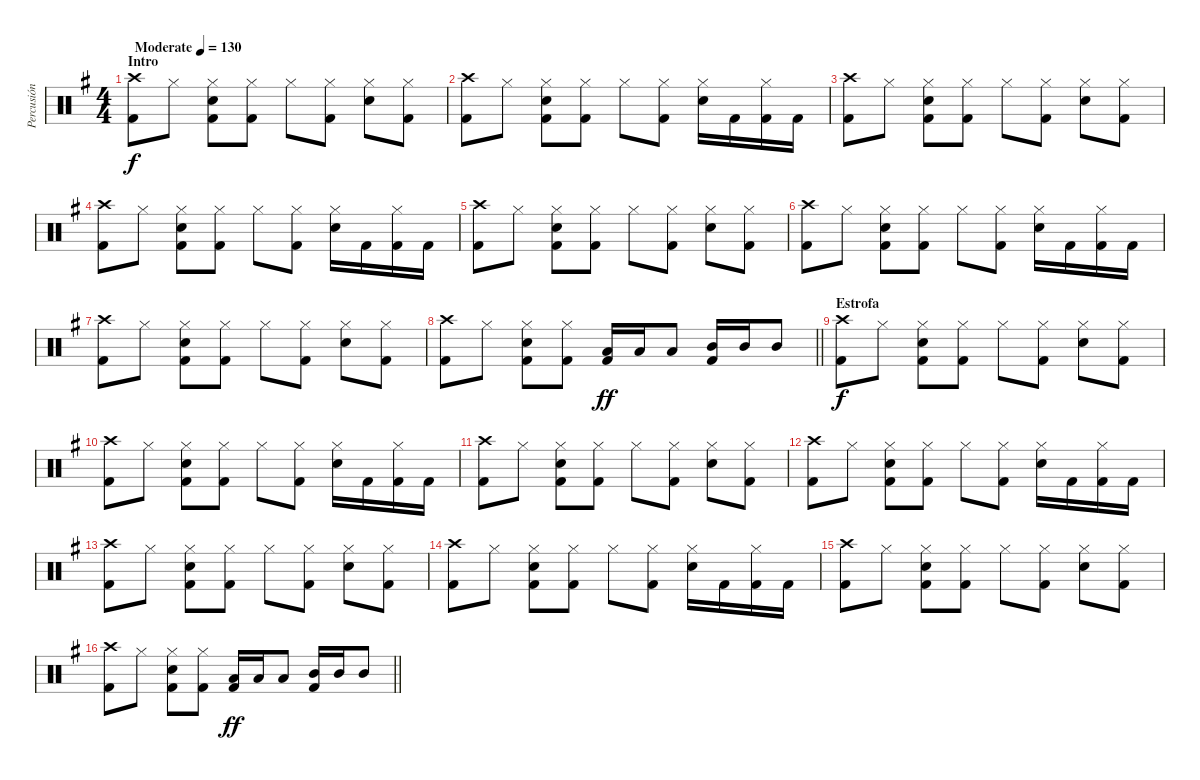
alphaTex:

\track ("Percusión" "Percusión") {instrument percussion}
\staff {score}
\articulation defaults
\ts (4 4)
\section ("" "Intro")
\tempo (130 "Moderate")
\clef neutral
\ks g
("Crash high (hit)" "Kick (hit) 2").8{dy f} "Hi-Hat (closed)".8 ("Hi-Hat (closed)" "Snare (hit) 2" "Kick (hit) 2").8 ("Hi-Hat (closed)" "Kick (hit) 2").8 "Hi-Hat (closed)".8 ("Hi-Hat (closed)" "Kick (hit) 2").8 ("Hi-Hat (closed)" "Snare (hit) 2").8 ("Hi-Hat (closed)" "Kick (hit) 2").8 |
("Crash high (hit)" "Kick (hit) 2").8 "Hi-Hat (closed)".8 ("Hi-Hat (closed)" "Snare (hit) 2" "Kick (hit) 2").8 ("Hi-Hat (closed)" "Kick (hit) 2").8 "Hi-Hat (closed)".8 ("Hi-Hat (closed)" "Kick (hit) 2").8 ("Hi-Hat (closed)" "Snare (hit) 2").16 "Kick (hit) 2".16 ("Hi-Hat (closed)" "Kick (hit) 2").16 "Kick (hit) 2".16 |
("Crash high (hit)" "Kick (hit) 2").8 "Hi-Hat (closed)".8 ("Hi-Hat (closed)" "Snare (hit) 2" "Kick (hit) 2").8 ("Hi-Hat (closed)" "Kick (hit) 2").8 "Hi-Hat (closed)".8 ("Hi-Hat (closed)" "Kick (hit) 2").8 ("Hi-Hat (closed)" "Snare (hit) 2").8 ("Hi-Hat (closed)" "Kick (hit) 2").8 |
("Crash high (hit)" "Kick (hit) 2").8 "Hi-Hat (closed)".8 ("Hi-Hat (closed)" "Snare (hit) 2" "Kick (hit) 2").8 ("Hi-Hat (closed)" "Kick (hit) 2").8 "Hi-Hat (closed)".8 ("Hi-Hat (closed)" "Kick (hit) 2").8 ("Hi-Hat (closed)" "Snare (hit) 2").16 "Kick (hit) 2".16 ("Hi-Hat (closed)" "Kick (hit) 2").16 "Kick (hit) 2".16 |
("Crash high (hit)" "Kick (hit) 2").8 "Hi-Hat (closed)".8 ("Hi-Hat (closed)" "Snare (hit) 2" "Kick (hit) 2").8 ("Hi-Hat (closed)" "Kick (hit) 2").8 "Hi-Hat (closed)".8 ("Hi-Hat (closed)" "Kick (hit) 2").8 ("Hi-Hat (closed)" "Snare (hit) 2").8 ("Hi-Hat (closed)" "Kick (hit) 2").8 |
("Crash high (hit)" "Kick (hit) 2").8 "Hi-Hat (closed)".8 ("Hi-Hat (closed)" "Snare (hit) 2" "Kick (hit) 2").8 ("Hi-Hat (closed)" "Kick (hit) 2").8 "Hi-Hat (closed)".8 ("Hi-Hat (closed)" "Kick (hit) 2").8 ("Hi-Hat (closed)" "Snare (hit) 2").16 "Kick (hit) 2".16 ("Hi-Hat (closed)" "Kick (hit) 2").16 "Kick (hit) 2".16 |
("Crash high (hit)" "Kick (hit) 2").8 "Hi-Hat (closed)".8 ("Hi-Hat (closed)" "Snare (hit) 2" "Kick (hit) 2").8 ("Hi-Hat (closed)" "Kick (hit) 2").8 "Hi-Hat (closed)".8 ("Hi-Hat (closed)" "Kick (hit) 2").8 ("Hi-Hat (closed)" "Snare (hit) 2").8 ("Hi-Hat (closed)" "Kick (hit) 2").8 |
\barLineRight lightlight
("Crash high (hit)" "Kick (hit) 2").8 "Hi-Hat (closed)".8 ("Hi-Hat (closed)" "Snare (hit) 2" "Kick (hit) 2").8 ("Hi-Hat (closed)" "Kick (hit) 2").8 ("Low Tom (hit)" "Kick (hit) 2").16{dy ff} "Low Tom (hit)".16 "Low Tom (hit)".8 ("Mid Tom (hit)" "Kick (hit) 2").16 "Mid Tom (hit)".16 "Mid Tom (hit)".8 |
\section ("" "Estrofa")
("Crash high (hit)" "Kick (hit) 2").8{dy f} "Hi-Hat (closed)".8 ("Hi-Hat (closed)" "Snare (hit) 2" "Kick (hit) 2").8 ("Hi-Hat (closed)" "Kick (hit) 2").8 "Hi-Hat (closed)".8 ("Hi-Hat (closed)" "Kick (hit) 2").8 ("Hi-Hat (closed)" "Snare (hit) 2").8 ("Hi-Hat (closed)" "Kick (hit) 2").8 |
("Crash high (hit)" "Kick (hit) 2").8 "Hi-Hat (closed)".8 ("Hi-Hat (closed)" "Snare (hit) 2" "Kick (hit) 2").8 ("Hi-Hat (closed)" "Kick (hit) 2").8 "Hi-Hat (closed)".8 ("Hi-Hat (closed)" "Kick (hit) 2").8 ("Hi-Hat (closed)" "Snare (hit) 2").16 "Kick (hit) 2".16 ("Hi-Hat (closed)" "Kick (hit) 2").16 "Kick (hit) 2".16 |
("Crash high (hit)" "Kick (hit) 2").8 "Hi-Hat (closed)".8 ("Hi-Hat (closed)" "Snare (hit) 2" "Kick (hit) 2").8 ("Hi-Hat (closed)" "Kick (hit) 2").8 "Hi-Hat (closed)".8 ("Hi-Hat (closed)" "Kick (hit) 2").8 ("Hi-Hat (closed)" "Snare (hit) 2").8 ("Hi-Hat (closed)" "Kick (hit) 2").8 |
("Crash high (hit)" "Kick (hit) 2").8 "Hi-Hat (closed)".8 ("Hi-Hat (closed)" "Snare (hit) 2" "Kick (hit) 2").8 ("Hi-Hat (closed)" "Kick (hit) 2").8 "Hi-Hat (closed)".8 ("Hi-Hat (closed)" "Kick (hit) 2").8 ("Hi-Hat (closed)" "Snare (hit) 2").16 "Kick (hit) 2".16 ("Hi-Hat (closed)" "Kick (hit) 2").16 "Kick (hit) 2".16 |
("Crash high (hit)" "Kick (hit) 2").8 "Hi-Hat (closed)".8 ("Hi-Hat (closed)" "Snare (hit) 2" "Kick (hit) 2").8 ("Hi-Hat (closed)" "Kick (hit) 2").8 "Hi-Hat (closed)".8 ("Hi-Hat (closed)" "Kick (hit) 2").8 ("Hi-Hat (closed)" "Snare (hit) 2").8 ("Hi-Hat (closed)" "Kick (hit) 2").8 |
("Crash high (hit)" "Kick (hit) 2").8 "Hi-Hat (closed)".8 ("Hi-Hat (closed)" "Snare (hit) 2" "Kick (hit) 2").8 ("Hi-Hat (closed)" "Kick (hit) 2").8 "Hi-Hat (closed)".8 ("Hi-Hat (closed)" "Kick (hit) 2").8 ("Hi-Hat (closed)" "Snare (hit) 2").16 "Kick (hit) 2".16 ("Hi-Hat (closed)" "Kick (hit) 2").16 "Kick (hit) 2".16 |
("Crash high (hit)" "Kick (hit) 2").8 "Hi-Hat (closed)".8 ("Hi-Hat (closed)" "Snare (hit) 2" "Kick (hit) 2").8 ("Hi-Hat (closed)" "Kick (hit) 2").8 "Hi-Hat (closed)".8 ("Hi-Hat (closed)" "Kick (hit) 2").8 ("Hi-Hat (closed)" "Snare (hit) 2").8 ("Hi-Hat (closed)" "Kick (hit) 2").8 |
\barLineRight lightlight
("Crash high (hit)" "Kick (hit) 2").8 "Hi-Hat (closed)".8 ("Hi-Hat (closed)" "Snare (hit) 2" "Kick (hit) 2").8 ("Hi-Hat (closed)" "Kick (hit) 2").8 ("Low Tom (hit)" "Kick (hit) 2").16{dy ff} "Low Tom (hit)".16 "Low Tom (hit)".8 ("Mid Tom (hit)" "Kick (hit) 2").16 "Mid Tom (hit)".16 "Mid Tom (hit)".8
